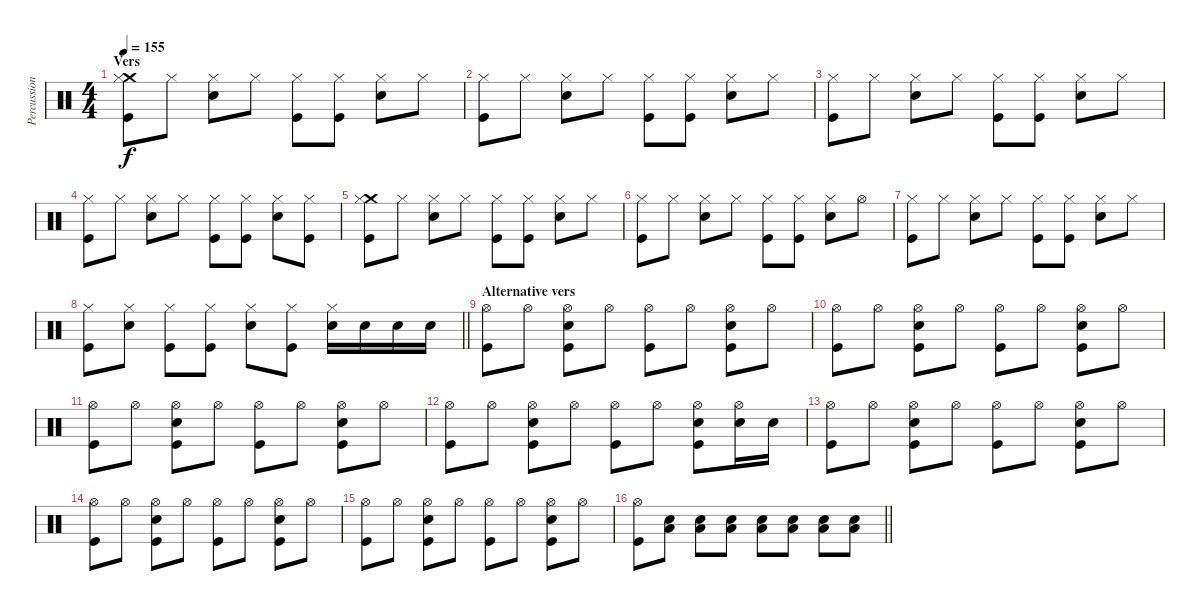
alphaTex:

\track ("Percussion" "Percussion") {instrument percussion}
\staff {score}
\articulation defaults
\ts (4 4)
\section ("" "Vers")
\tempo 155
\clef neutral
\ks c
("Crash medium (hit)" "Hi-Hat (closed)" "Kick (hit)").8{dy f} "Hi-Hat (closed)".8 ("Hi-Hat (closed)" "Electric Snare (hit)").8 "Hi-Hat (closed)".8 ("Hi-Hat (closed)" "Kick (hit)").8 ("Hi-Hat (closed)" "Kick (hit)").8 ("Hi-Hat (closed)" "Electric Snare (hit)").8 "Hi-Hat (closed)".8 |
("Hi-Hat (closed)" "Kick (hit)").8 "Hi-Hat (closed)".8 ("Hi-Hat (closed)" "Electric Snare (hit)").8 "Hi-Hat (closed)".8 ("Hi-Hat (closed)" "Kick (hit)").8 ("Hi-Hat (closed)" "Kick (hit)").8 ("Hi-Hat (closed)" "Electric Snare (hit)").8 "Hi-Hat (closed)".8 |
("Hi-Hat (closed)" "Kick (hit)").8 "Hi-Hat (closed)".8 ("Hi-Hat (closed)" "Electric Snare (hit)").8 "Hi-Hat (closed)".8 ("Hi-Hat (closed)" "Kick (hit)").8 ("Hi-Hat (closed)" "Kick (hit)").8 ("Hi-Hat (closed)" "Electric Snare (hit)").8 "Hi-Hat (closed)".8 |
("Hi-Hat (closed)" "Kick (hit)").8 "Hi-Hat (closed)".8 ("Hi-Hat (closed)" "Electric Snare (hit)").8 "Hi-Hat (closed)".8 ("Hi-Hat (closed)" "Kick (hit)").8 ("Hi-Hat (closed)" "Kick (hit)").8 ("Hi-Hat (closed)" "Electric Snare (hit)").8 ("Hi-Hat (closed)" "Kick (hit)").8 |
("Crash medium (hit)" "Hi-Hat (closed)" "Kick (hit)").8 "Hi-Hat (closed)".8 ("Hi-Hat (closed)" "Electric Snare (hit)").8 "Hi-Hat (closed)".8 ("Hi-Hat (closed)" "Kick (hit)").8 ("Hi-Hat (closed)" "Kick (hit)").8 ("Hi-Hat (closed)" "Electric Snare (hit)").8 "Hi-Hat (closed)".8 |
("Hi-Hat (closed)" "Kick (hit)").8 "Hi-Hat (closed)".8 ("Hi-Hat (closed)" "Electric Snare (hit)").8 "Hi-Hat (closed)".8 ("Hi-Hat (closed)" "Kick (hit)").8 ("Hi-Hat (closed)" "Kick (hit)").8 ("Hi-Hat (closed)" "Electric Snare (hit)").8 "Hi-Hat (open)".8 |
("Hi-Hat (closed)" "Kick (hit)").8 "Hi-Hat (closed)".8 ("Hi-Hat (closed)" "Electric Snare (hit)").8 "Hi-Hat (closed)".8 ("Hi-Hat (closed)" "Kick (hit)").8 ("Hi-Hat (closed)" "Kick (hit)").8 ("Hi-Hat (closed)" "Electric Snare (hit)").8 "Hi-Hat (closed)".8 |
\barLineRight lightlight
("Hi-Hat (closed)" "Kick (hit)").8 ("Hi-Hat (closed)" "Electric Snare (hit)").8 ("Hi-Hat (closed)" "Kick (hit)").8 ("Hi-Hat (closed)" "Kick (hit)").8 ("Hi-Hat (closed)" "Electric Snare (hit)").8 ("Hi-Hat (closed)" "Kick (hit)").8 ("Hi-Hat (closed)" "Electric Snare (hit)").16 "Electric Snare (hit)".16 "Electric Snare (hit)".16 "Electric Snare (hit)".16 |
\section ("" "Alternative vers")
("Hi-Hat (open)" "Kick (hit)").8 "Hi-Hat (open)".8 ("Hi-Hat (open)" "Electric Snare (hit)" "Kick (hit)").8 "Hi-Hat (open)".8 ("Hi-Hat (open)" "Kick (hit)").8 "Hi-Hat (open)".8 ("Hi-Hat (open)" "Electric Snare (hit)" "Kick (hit)").8 "Hi-Hat (open)".8 |
("Hi-Hat (open)" "Kick (hit)").8 "Hi-Hat (open)".8 ("Hi-Hat (open)" "Electric Snare (hit)" "Kick (hit)").8 "Hi-Hat (open)".8 ("Hi-Hat (open)" "Kick (hit)").8 "Hi-Hat (open)".8 ("Hi-Hat (open)" "Electric Snare (hit)" "Kick (hit)").8 "Hi-Hat (open)".8 |
("Hi-Hat (open)" "Kick (hit)").8 "Hi-Hat (open)".8 ("Hi-Hat (open)" "Electric Snare (hit)" "Kick (hit)").8 "Hi-Hat (open)".8 ("Hi-Hat (open)" "Kick (hit)").8 "Hi-Hat (open)".8 ("Hi-Hat (open)" "Electric Snare (hit)" "Kick (hit)").8 "Hi-Hat (open)".8 |
("Hi-Hat (open)" "Kick (hit)").8 "Hi-Hat (open)".8 ("Hi-Hat (open)" "Electric Snare (hit)" "Kick (hit)").8 "Hi-Hat (open)".8 ("Hi-Hat (open)" "Kick (hit)").8 "Hi-Hat (open)".8 ("Hi-Hat (open)" "Electric Snare (hit)" "Kick (hit)").8 ("Hi-Hat (open)" "Electric Snare (hit)").16 "Electric Snare (hit)".16 |
("Hi-Hat (open)" "Kick (hit)").8 "Hi-Hat (open)".8 ("Hi-Hat (open)" "Electric Snare (hit)" "Kick (hit)").8 "Hi-Hat (open)".8 ("Hi-Hat (open)" "Kick (hit)").8 "Hi-Hat (open)".8 ("Hi-Hat (open)" "Electric Snare (hit)" "Kick (hit)").8 "Hi-Hat (open)".8 |
("Hi-Hat (open)" "Kick (hit)").8 "Hi-Hat (open)".8 ("Hi-Hat (open)" "Electric Snare (hit)" "Kick (hit)").8 "Hi-Hat (open)".8 ("Hi-Hat (open)" "Kick (hit)").8 "Hi-Hat (open)".8 ("Hi-Hat (open)" "Electric Snare (hit)" "Kick (hit)").8 "Hi-Hat (open)".8 |
("Hi-Hat (open)" "Kick (hit)").8 "Hi-Hat (open)".8 ("Hi-Hat (open)" "Electric Snare (hit)" "Kick (hit)").8 "Hi-Hat (open)".8 ("Hi-Hat (open)" "Kick (hit)").8 "Hi-Hat (open)".8 ("Hi-Hat (open)" "Electric Snare (hit)" "Kick (hit)").8 "Hi-Hat (open)".8 |
\barLineRight lightlight
("Hi-Hat (open)" "Kick (hit)").8 ("Low Tom (hit)" "Electric Snare (hit)").8{volume 6} ("Low Tom (hit)" "Electric Snare (hit)").8 ("Low Tom (hit)" "Electric Snare (hit)").8{volume 10} ("Low Tom (hit)" "Electric Snare (hit)").8 ("Low Tom (hit)" "Electric Snare (hit)").8{volume 13} ("Low Tom (hit)" "Electric Snare (hit)").8 ("Low Tom (hit)" "Electric Snare (hit)").8{volume 16}
